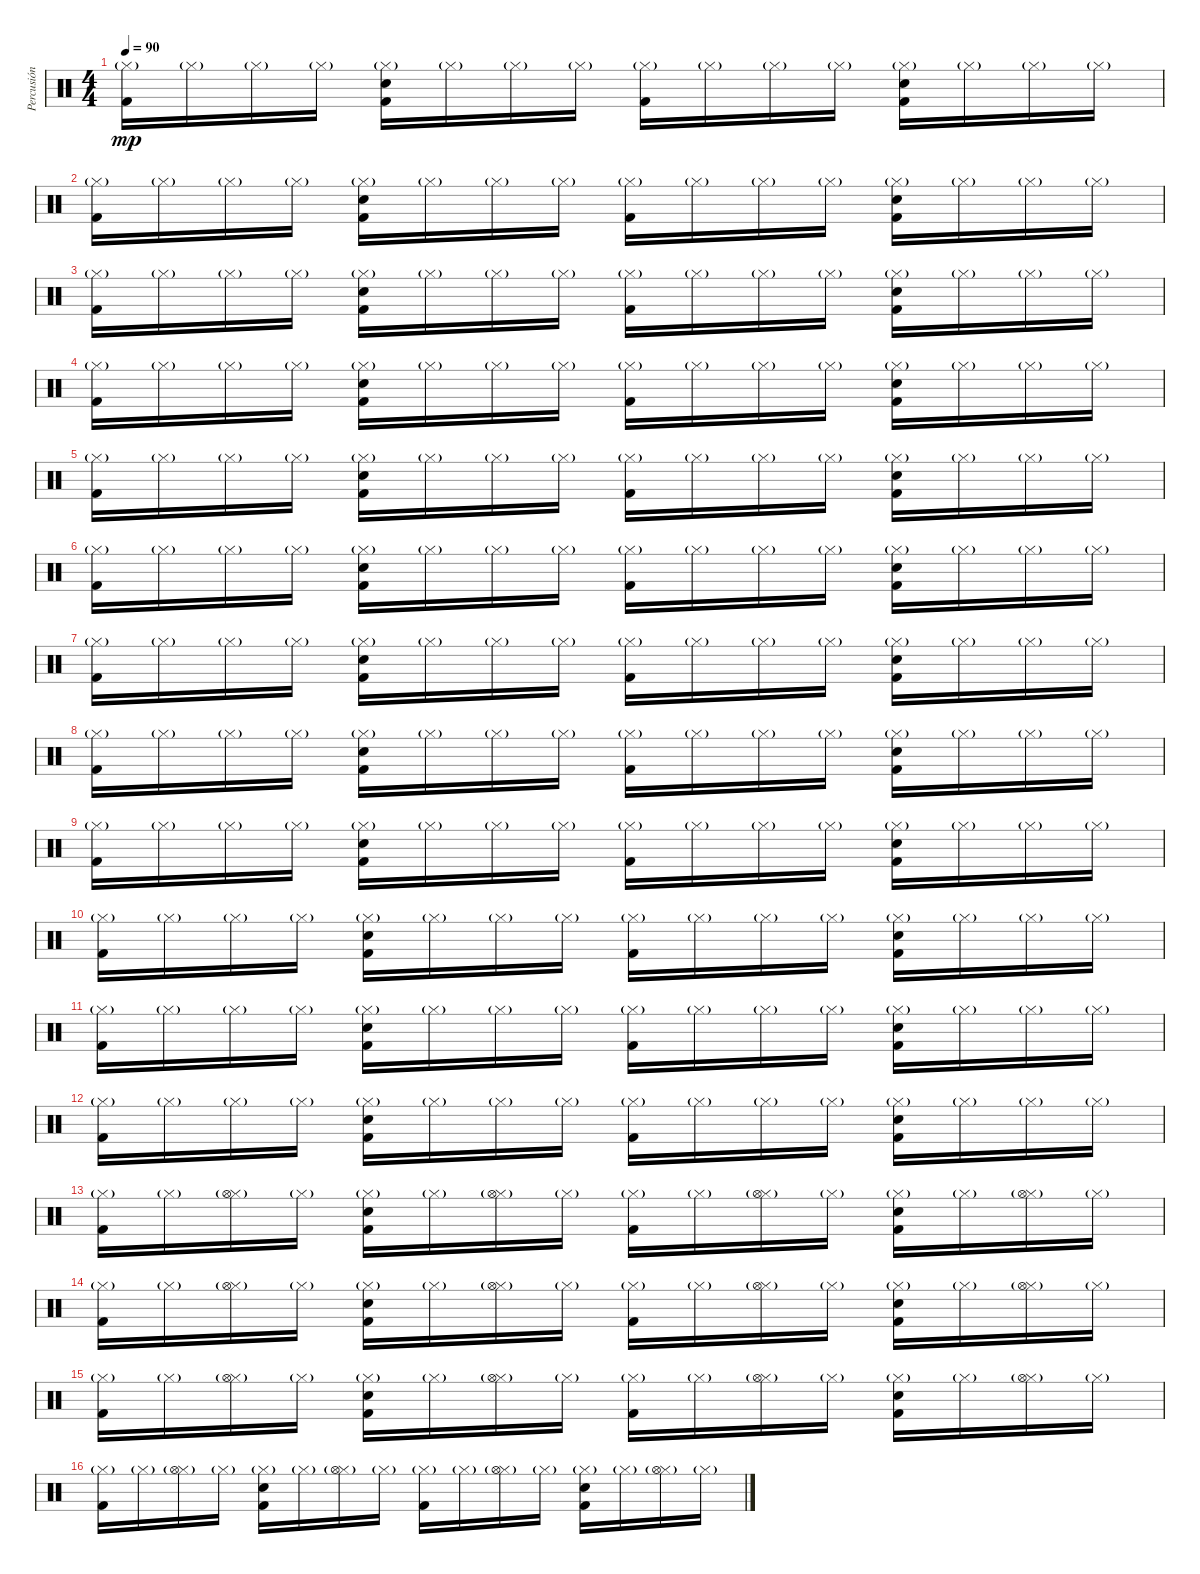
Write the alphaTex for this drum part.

\track ("Percusión" "Percusión") {instrument percussion}
\staff {score}
\articulation defaults
\ts (4 4)
\tempo 90
\clef neutral
\ks c
("Kick (hit) 2" "Hi-Hat (closed)"{g}).16{dy mp} "Hi-Hat (closed)"{g}.16 "Hi-Hat (closed)"{g}.16 "Hi-Hat (closed)"{g}.16 ("Kick (hit) 2" "Snare (hit) 2" "Hi-Hat (closed)"{g}).16 "Hi-Hat (closed)"{g}.16 "Hi-Hat (closed)"{g}.16 "Hi-Hat (closed)"{g}.16 ("Kick (hit) 2" "Hi-Hat (closed)"{g}).16 "Hi-Hat (closed)"{g}.16 "Hi-Hat (closed)"{g}.16 "Hi-Hat (closed)"{g}.16 ("Kick (hit) 2" "Snare (hit) 2" "Hi-Hat (closed)"{g}).16 "Hi-Hat (closed)"{g}.16 "Hi-Hat (closed)"{g}.16 "Hi-Hat (closed)"{g}.16 |
("Kick (hit) 2" "Hi-Hat (closed)"{g}).16 "Hi-Hat (closed)"{g}.16 "Hi-Hat (closed)"{g}.16 "Hi-Hat (closed)"{g}.16 ("Kick (hit) 2" "Snare (hit) 2" "Hi-Hat (closed)"{g}).16 "Hi-Hat (closed)"{g}.16 "Hi-Hat (closed)"{g}.16 "Hi-Hat (closed)"{g}.16 ("Kick (hit) 2" "Hi-Hat (closed)"{g}).16 "Hi-Hat (closed)"{g}.16 "Hi-Hat (closed)"{g}.16 "Hi-Hat (closed)"{g}.16 ("Kick (hit) 2" "Snare (hit) 2" "Hi-Hat (closed)"{g}).16 "Hi-Hat (closed)"{g}.16 "Hi-Hat (closed)"{g}.16 "Hi-Hat (closed)"{g}.16 |
("Kick (hit) 2" "Hi-Hat (closed)"{g}).16 "Hi-Hat (closed)"{g}.16 "Hi-Hat (closed)"{g}.16 "Hi-Hat (closed)"{g}.16 ("Kick (hit) 2" "Snare (hit) 2" "Hi-Hat (closed)"{g}).16 "Hi-Hat (closed)"{g}.16 "Hi-Hat (closed)"{g}.16 "Hi-Hat (closed)"{g}.16 ("Kick (hit) 2" "Hi-Hat (closed)"{g}).16 "Hi-Hat (closed)"{g}.16 "Hi-Hat (closed)"{g}.16 "Hi-Hat (closed)"{g}.16 ("Kick (hit) 2" "Snare (hit) 2" "Hi-Hat (closed)"{g}).16 "Hi-Hat (closed)"{g}.16 "Hi-Hat (closed)"{g}.16 "Hi-Hat (closed)"{g}.16 |
("Kick (hit) 2" "Hi-Hat (closed)"{g}).16 "Hi-Hat (closed)"{g}.16 "Hi-Hat (closed)"{g}.16 "Hi-Hat (closed)"{g}.16 ("Kick (hit) 2" "Snare (hit) 2" "Hi-Hat (closed)"{g}).16 "Hi-Hat (closed)"{g}.16 "Hi-Hat (closed)"{g}.16 "Hi-Hat (closed)"{g}.16 ("Kick (hit) 2" "Hi-Hat (closed)"{g}).16 "Hi-Hat (closed)"{g}.16 "Hi-Hat (closed)"{g}.16 "Hi-Hat (closed)"{g}.16 ("Kick (hit) 2" "Snare (hit) 2" "Hi-Hat (closed)"{g}).16 "Hi-Hat (closed)"{g}.16 "Hi-Hat (closed)"{g}.16 "Hi-Hat (closed)"{g}.16 |
("Kick (hit) 2" "Hi-Hat (closed)"{g}).16 "Hi-Hat (closed)"{g}.16 "Hi-Hat (closed)"{g}.16 "Hi-Hat (closed)"{g}.16 ("Kick (hit) 2" "Snare (hit) 2" "Hi-Hat (closed)"{g}).16 "Hi-Hat (closed)"{g}.16 "Hi-Hat (closed)"{g}.16 "Hi-Hat (closed)"{g}.16 ("Kick (hit) 2" "Hi-Hat (closed)"{g}).16 "Hi-Hat (closed)"{g}.16 "Hi-Hat (closed)"{g}.16 "Hi-Hat (closed)"{g}.16 ("Kick (hit) 2" "Snare (hit) 2" "Hi-Hat (closed)"{g}).16 "Hi-Hat (closed)"{g}.16 "Hi-Hat (closed)"{g}.16 "Hi-Hat (closed)"{g}.16 |
("Kick (hit) 2" "Hi-Hat (closed)"{g}).16 "Hi-Hat (closed)"{g}.16 "Hi-Hat (closed)"{g}.16 "Hi-Hat (closed)"{g}.16 ("Kick (hit) 2" "Snare (hit) 2" "Hi-Hat (closed)"{g}).16 "Hi-Hat (closed)"{g}.16 "Hi-Hat (closed)"{g}.16 "Hi-Hat (closed)"{g}.16 ("Kick (hit) 2" "Hi-Hat (closed)"{g}).16 "Hi-Hat (closed)"{g}.16 "Hi-Hat (closed)"{g}.16 "Hi-Hat (closed)"{g}.16 ("Kick (hit) 2" "Snare (hit) 2" "Hi-Hat (closed)"{g}).16 "Hi-Hat (closed)"{g}.16 "Hi-Hat (closed)"{g}.16 "Hi-Hat (closed)"{g}.16 |
("Kick (hit) 2" "Hi-Hat (closed)"{g}).16 "Hi-Hat (closed)"{g}.16 "Hi-Hat (closed)"{g}.16 "Hi-Hat (closed)"{g}.16 ("Kick (hit) 2" "Snare (hit) 2" "Hi-Hat (closed)"{g}).16 "Hi-Hat (closed)"{g}.16 "Hi-Hat (closed)"{g}.16 "Hi-Hat (closed)"{g}.16 ("Kick (hit) 2" "Hi-Hat (closed)"{g}).16 "Hi-Hat (closed)"{g}.16 "Hi-Hat (closed)"{g}.16 "Hi-Hat (closed)"{g}.16 ("Kick (hit) 2" "Snare (hit) 2" "Hi-Hat (closed)"{g}).16 "Hi-Hat (closed)"{g}.16 "Hi-Hat (closed)"{g}.16 "Hi-Hat (closed)"{g}.16 |
("Kick (hit) 2" "Hi-Hat (closed)"{g}).16 "Hi-Hat (closed)"{g}.16 "Hi-Hat (closed)"{g}.16 "Hi-Hat (closed)"{g}.16 ("Kick (hit) 2" "Snare (hit) 2" "Hi-Hat (closed)"{g}).16 "Hi-Hat (closed)"{g}.16 "Hi-Hat (closed)"{g}.16 "Hi-Hat (closed)"{g}.16 ("Kick (hit) 2" "Hi-Hat (closed)"{g}).16 "Hi-Hat (closed)"{g}.16 "Hi-Hat (closed)"{g}.16 "Hi-Hat (closed)"{g}.16 ("Kick (hit) 2" "Snare (hit) 2" "Hi-Hat (closed)"{g}).16 "Hi-Hat (closed)"{g}.16 "Hi-Hat (closed)"{g}.16 "Hi-Hat (closed)"{g}.16 |
("Kick (hit) 2" "Hi-Hat (closed)"{g}).16 "Hi-Hat (closed)"{g}.16 "Hi-Hat (closed)"{g}.16 "Hi-Hat (closed)"{g}.16 ("Kick (hit) 2" "Snare (hit) 2" "Hi-Hat (closed)"{g}).16 "Hi-Hat (closed)"{g}.16 "Hi-Hat (closed)"{g}.16 "Hi-Hat (closed)"{g}.16 ("Kick (hit) 2" "Hi-Hat (closed)"{g}).16 "Hi-Hat (closed)"{g}.16 "Hi-Hat (closed)"{g}.16 "Hi-Hat (closed)"{g}.16 ("Kick (hit) 2" "Snare (hit) 2" "Hi-Hat (closed)"{g}).16 "Hi-Hat (closed)"{g}.16 "Hi-Hat (closed)"{g}.16 "Hi-Hat (closed)"{g}.16 |
("Kick (hit) 2" "Hi-Hat (closed)"{g}).16 "Hi-Hat (closed)"{g}.16 "Hi-Hat (closed)"{g}.16 "Hi-Hat (closed)"{g}.16 ("Kick (hit) 2" "Snare (hit) 2" "Hi-Hat (closed)"{g}).16 "Hi-Hat (closed)"{g}.16 "Hi-Hat (closed)"{g}.16 "Hi-Hat (closed)"{g}.16 ("Kick (hit) 2" "Hi-Hat (closed)"{g}).16 "Hi-Hat (closed)"{g}.16 "Hi-Hat (closed)"{g}.16 "Hi-Hat (closed)"{g}.16 ("Kick (hit) 2" "Snare (hit) 2" "Hi-Hat (closed)"{g}).16 "Hi-Hat (closed)"{g}.16 "Hi-Hat (closed)"{g}.16 "Hi-Hat (closed)"{g}.16 |
("Kick (hit) 2" "Hi-Hat (closed)"{g}).16 "Hi-Hat (closed)"{g}.16 "Hi-Hat (closed)"{g}.16 "Hi-Hat (closed)"{g}.16 ("Kick (hit) 2" "Snare (hit) 2" "Hi-Hat (closed)"{g}).16 "Hi-Hat (closed)"{g}.16 "Hi-Hat (closed)"{g}.16 "Hi-Hat (closed)"{g}.16 ("Kick (hit) 2" "Hi-Hat (closed)"{g}).16 "Hi-Hat (closed)"{g}.16 "Hi-Hat (closed)"{g}.16 "Hi-Hat (closed)"{g}.16 ("Kick (hit) 2" "Snare (hit) 2" "Hi-Hat (closed)"{g}).16 "Hi-Hat (closed)"{g}.16 "Hi-Hat (closed)"{g}.16 "Hi-Hat (closed)"{g}.16 |
("Kick (hit) 2" "Hi-Hat (closed)"{g}).16 "Hi-Hat (closed)"{g}.16 "Hi-Hat (closed)"{g}.16 "Hi-Hat (closed)"{g}.16 ("Kick (hit) 2" "Snare (hit) 2" "Hi-Hat (closed)"{g}).16 "Hi-Hat (closed)"{g}.16 "Hi-Hat (closed)"{g}.16 "Hi-Hat (closed)"{g}.16 ("Kick (hit) 2" "Hi-Hat (closed)"{g}).16 "Hi-Hat (closed)"{g}.16 "Hi-Hat (closed)"{g}.16 "Hi-Hat (closed)"{g}.16 ("Kick (hit) 2" "Snare (hit) 2" "Hi-Hat (closed)"{g}).16 "Hi-Hat (closed)"{g}.16 "Hi-Hat (closed)"{g}.16 "Hi-Hat (closed)"{g}.16 |
("Kick (hit) 2" "Hi-Hat (closed)"{g}).16 "Hi-Hat (closed)"{g}.16 ("Hi-Hat (closed)"{g} "Hi-Hat (open)").16 "Hi-Hat (closed)"{g}.16 ("Kick (hit) 2" "Snare (hit) 2" "Hi-Hat (closed)"{g}).16 "Hi-Hat (closed)"{g}.16 ("Hi-Hat (closed)"{g} "Hi-Hat (open)").16 "Hi-Hat (closed)"{g}.16 ("Kick (hit) 2" "Hi-Hat (closed)"{g}).16 "Hi-Hat (closed)"{g}.16 ("Hi-Hat (closed)"{g} "Hi-Hat (open)").16 "Hi-Hat (closed)"{g}.16 ("Kick (hit) 2" "Snare (hit) 2" "Hi-Hat (closed)"{g}).16 "Hi-Hat (closed)"{g}.16 ("Hi-Hat (closed)"{g} "Hi-Hat (open)").16 "Hi-Hat (closed)"{g}.16 |
("Kick (hit) 2" "Hi-Hat (closed)"{g}).16 "Hi-Hat (closed)"{g}.16 ("Hi-Hat (closed)"{g} "Hi-Hat (open)").16 "Hi-Hat (closed)"{g}.16 ("Kick (hit) 2" "Snare (hit) 2" "Hi-Hat (closed)"{g}).16 "Hi-Hat (closed)"{g}.16 ("Hi-Hat (closed)"{g} "Hi-Hat (open)").16 "Hi-Hat (closed)"{g}.16 ("Kick (hit) 2" "Hi-Hat (closed)"{g}).16 "Hi-Hat (closed)"{g}.16 ("Hi-Hat (closed)"{g} "Hi-Hat (open)").16 "Hi-Hat (closed)"{g}.16 ("Kick (hit) 2" "Snare (hit) 2" "Hi-Hat (closed)"{g}).16 "Hi-Hat (closed)"{g}.16 ("Hi-Hat (closed)"{g} "Hi-Hat (open)").16 "Hi-Hat (closed)"{g}.16 |
("Kick (hit) 2" "Hi-Hat (closed)"{g}).16 "Hi-Hat (closed)"{g}.16 ("Hi-Hat (closed)"{g} "Hi-Hat (open)").16 "Hi-Hat (closed)"{g}.16 ("Kick (hit) 2" "Snare (hit) 2" "Hi-Hat (closed)"{g}).16 "Hi-Hat (closed)"{g}.16 ("Hi-Hat (closed)"{g} "Hi-Hat (open)").16 "Hi-Hat (closed)"{g}.16 ("Kick (hit) 2" "Hi-Hat (closed)"{g}).16 "Hi-Hat (closed)"{g}.16 ("Hi-Hat (closed)"{g} "Hi-Hat (open)").16 "Hi-Hat (closed)"{g}.16 ("Kick (hit) 2" "Snare (hit) 2" "Hi-Hat (closed)"{g}).16 "Hi-Hat (closed)"{g}.16 ("Hi-Hat (closed)"{g} "Hi-Hat (open)").16 "Hi-Hat (closed)"{g}.16 |
("Kick (hit) 2" "Hi-Hat (closed)"{g}).16 "Hi-Hat (closed)"{g}.16 ("Hi-Hat (closed)"{g} "Hi-Hat (open)").16 "Hi-Hat (closed)"{g}.16 ("Kick (hit) 2" "Snare (hit) 2" "Hi-Hat (closed)"{g}).16 "Hi-Hat (closed)"{g}.16 ("Hi-Hat (closed)"{g} "Hi-Hat (open)").16 "Hi-Hat (closed)"{g}.16 ("Kick (hit) 2" "Hi-Hat (closed)"{g}).16 "Hi-Hat (closed)"{g}.16 ("Hi-Hat (closed)"{g} "Hi-Hat (open)").16 "Hi-Hat (closed)"{g}.16 ("Kick (hit) 2" "Snare (hit) 2" "Hi-Hat (closed)"{g}).16 "Hi-Hat (closed)"{g}.16 ("Hi-Hat (closed)"{g} "Hi-Hat (open)").16 "Hi-Hat (closed)"{g}.16
